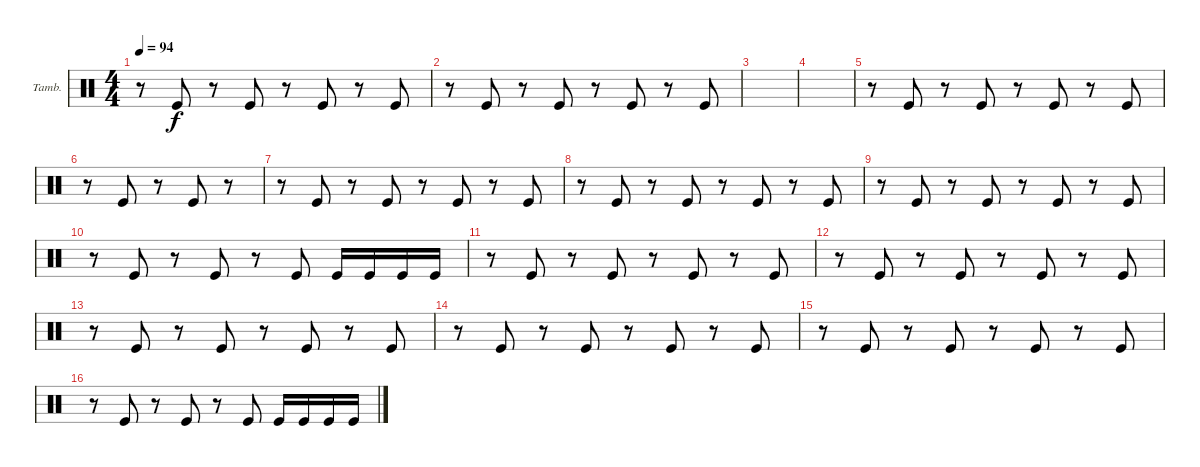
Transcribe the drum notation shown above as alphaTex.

\defaultSystemsLayout 4
\bracketExtendMode groupsimilarinstruments
\firstSystemTrackNameOrientation horizontal
\otherSystemsTrackNameOrientation horizontal
\track ("Tambourine" "Tamb.") {instrument percussion}
\staff {score}
\articulation defaults
\ts (4 4)
\tempo 94
\clef neutral
\scale
0.333333
\ks c
r.8{dy f} "Kick (hit)".8 r.8 "Kick (hit)".8 r.8 "Kick (hit)".8 r.8 "Kick (hit)".8 |
\scale
0.333333 r.8 "Kick (hit)".8 r.8 "Kick (hit)".8 r.8 "Kick (hit)".8 r.8 "Kick (hit)".8 |
\scale
0.333333 |
\scale
0.333333 |
\scale
0.333333 r.8 "Kick (hit)".8 r.8 "Kick (hit)".8 r.8 "Kick (hit)".8 r.8 "Kick (hit)".8 |
\scale
0.333333 r.8 "Kick (hit)".8 r.8 "Kick (hit)".8 r.8 |
\scale
0.333333 r.8 "Kick (hit)".8 r.8 "Kick (hit)".8 r.8 "Kick (hit)".8 r.8 "Kick (hit)".8 |
\scale
0.333333 r.8 "Kick (hit)".8 r.8 "Kick (hit)".8 r.8 "Kick (hit)".8 r.8 "Kick (hit)".8 |
\scale
0.333333 r.8 "Kick (hit)".8 r.8 "Kick (hit)".8 r.8 "Kick (hit)".8 r.8 "Kick (hit)".8 |
\scale
0.333333 r.8 "Kick (hit)".8 r.8 "Kick (hit)".8 r.8 "Kick (hit)".8 "Kick (hit)".16 "Kick (hit)".16 "Kick (hit)".16 "Kick (hit)".16 |
\scale
0.333333 r.8 "Kick (hit)".8 r.8 "Kick (hit)".8 r.8 "Kick (hit)".8 r.8 "Kick (hit)".8 |
\scale
0.333333 r.8 "Kick (hit)".8 r.8 "Kick (hit)".8 r.8 "Kick (hit)".8 r.8 "Kick (hit)".8 |
\scale
0.333333 r.8 "Kick (hit)".8 r.8 "Kick (hit)".8 r.8 "Kick (hit)".8 r.8 "Kick (hit)".8 |
\scale
0.333333 r.8 "Kick (hit)".8 r.8 "Kick (hit)".8 r.8 "Kick (hit)".8 r.8 "Kick (hit)".8 |
\scale
0.333333 r.8 "Kick (hit)".8 r.8 "Kick (hit)".8 r.8 "Kick (hit)".8 r.8 "Kick (hit)".8 |
\scale
0.333333 r.8 "Kick (hit)".8 r.8 "Kick (hit)".8 r.8 "Kick (hit)".8 "Kick (hit)".16 "Kick (hit)".16 "Kick (hit)".16 "Kick (hit)".16
